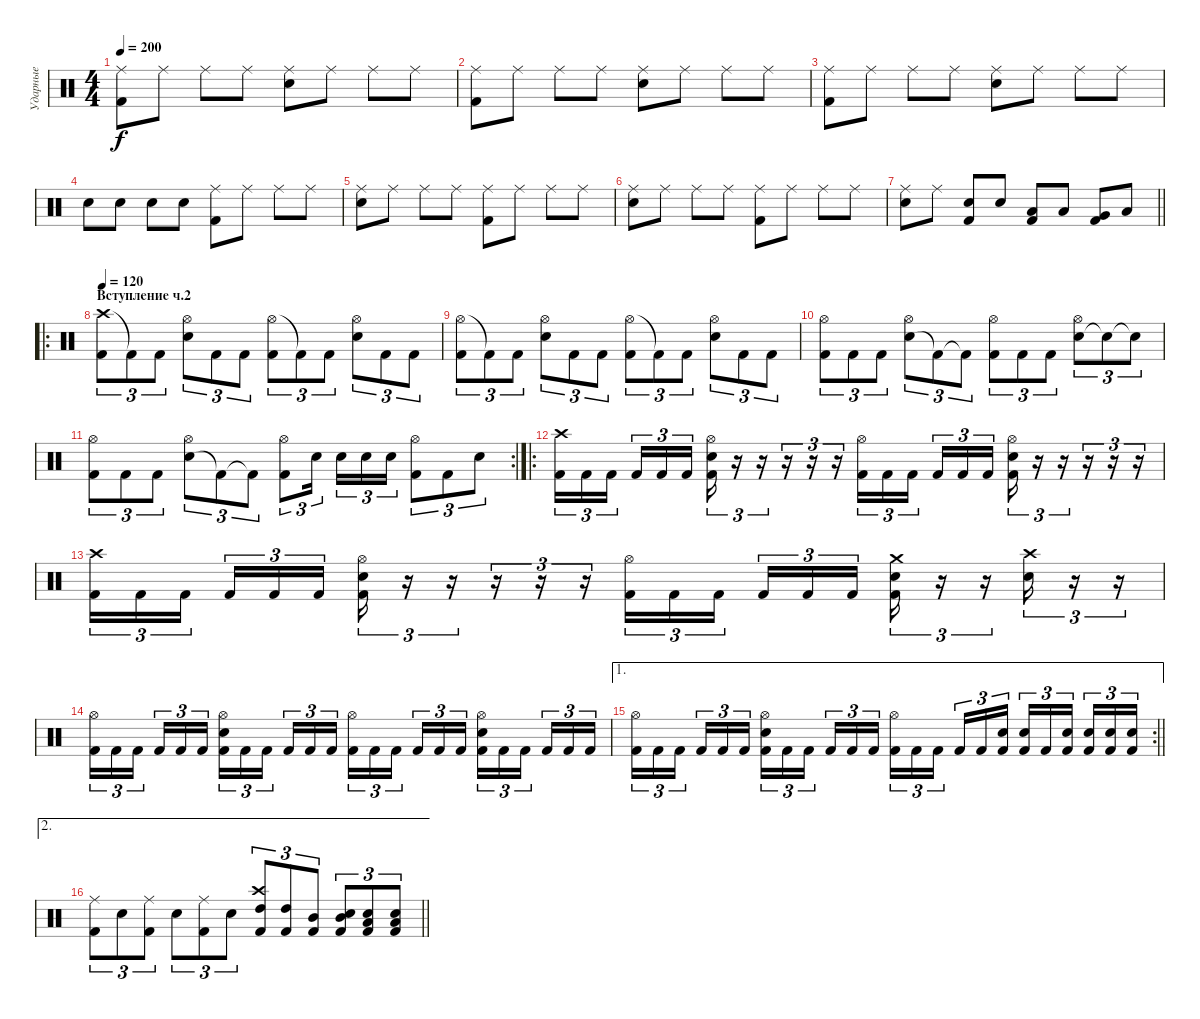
\track ("Ударные" "Ударные") {instrument percussion}
\staff {score}
\articulation defaults
\ts (4 4)
\tempo 200
\clef neutral
\ks c
("Kick (hit) 2" "Ride (middle)").8{dy f} "Ride (middle)".8 "Ride (middle)".8 "Ride (middle)".8 ("Snare (hit) 2" "Ride (middle)").8 "Ride (middle)".8 "Ride (middle)".8 "Ride (middle)".8 |
("Kick (hit) 2" "Ride (middle)").8 "Ride (middle)".8 "Ride (middle)".8 "Ride (middle)".8 ("Snare (hit) 2" "Ride (middle)").8 "Ride (middle)".8 "Ride (middle)".8 "Ride (middle)".8 |
("Kick (hit) 2" "Ride (middle)").8 "Ride (middle)".8 "Ride (middle)".8 "Ride (middle)".8 ("Snare (hit) 2" "Ride (middle)").8 "Ride (middle)".8 "Ride (middle)".8 "Ride (middle)".8 |
"Snare (hit) 2".8 "Snare (hit) 2".8 "Snare (hit) 2".8 "Snare (hit) 2".8 ("Kick (hit) 2" "Ride (middle)").8 "Ride (middle)".8 "Ride (middle)".8 "Ride (middle)".8 |
("Snare (hit) 2" "Ride (middle)").8 "Ride (middle)".8 "Ride (middle)".8 "Ride (middle)".8 ("Kick (hit) 2" "Ride (middle)").8 "Ride (middle)".8 "Ride (middle)".8 "Ride (middle)".8 |
("Snare (hit) 2" "Ride (middle)").8 "Ride (middle)".8 "Ride (middle)".8 "Ride (middle)".8 ("Kick (hit) 2" "Ride (middle)").8 "Ride (middle)".8 "Ride (middle)".8 "Ride (middle)".8 |
\barLineRight lightlight
("Snare (hit) 2" "Ride (middle)").8 "Ride (middle)".8 ("Snare (hit) 2" "Kick (hit) 2").8 "Snare (hit) 2".8 ("Low Tom (hit)" "Kick (hit) 2").8 "Low Tom (hit)".8 ("Very Low Tom (hit)" "Kick (hit) 2").8 "Low Floor Tom (hit)".8 |
\ro
\section ("" "Вступление ч.2")
\tempo 120
("Crash high (hit)" "Kick (hit) 2").8{tu (3 2)} "Kick (hit) 2"{t}.8{tu (3 2)} "Kick (hit) 2".8{tu (3 2)} ("Hi-Hat (open)" "Snare (hit) 2").8{tu (3 2)} "Kick (hit) 2".8{tu (3 2)} "Kick (hit) 2".8{tu (3 2)} ("Hi-Hat (open)" "Kick (hit) 2").8{tu (3 2)} "Kick (hit) 2"{t}.8{tu (3 2)} "Kick (hit) 2".8{tu (3 2)} ("Hi-Hat (open)" "Snare (hit) 2").8{tu (3 2)} "Kick (hit) 2".8{tu (3 2)} "Kick (hit) 2".8{tu (3 2)} |
("Hi-Hat (open)" "Kick (hit) 2").8{tu (3 2)} "Kick (hit) 2"{t}.8{tu (3 2)} "Kick (hit) 2".8{tu (3 2)} ("Hi-Hat (open)" "Snare (hit) 2").8{tu (3 2)} "Kick (hit) 2".8{tu (3 2)} "Kick (hit) 2".8{tu (3 2)} ("Hi-Hat (open)" "Kick (hit) 2").8{tu (3 2)} "Kick (hit) 2"{t}.8{tu (3 2)} "Kick (hit) 2".8{tu (3 2)} ("Hi-Hat (open)" "Snare (hit) 2").8{tu (3 2)} "Kick (hit) 2".8{tu (3 2)} "Kick (hit) 2".8{tu (3 2)} |
("Hi-Hat (open)" "Kick (hit) 2").8{tu (3 2)} "Kick (hit) 2".8{tu (3 2)} "Kick (hit) 2".8{tu (3 2)} ("Snare (hit) 2" "Hi-Hat (open)").8{tu (3 2)} "Kick (hit) 2"{t}.8{tu (3 2)} "Kick (hit) 2"{t}.8{tu (3 2)} ("Hi-Hat (open)" "Kick (hit) 2").8{tu (3 2)} "Kick (hit) 2".8{tu (3 2)} "Kick (hit) 2".8{tu (3 2)} ("Snare (hit) 2" "Hi-Hat (open)").8{tu (3 2)} "Snare (hit)"{t}.8{tu (3 2)} "Snare (hit)"{t}.8{tu (3 2)} |
\rc 2
("Hi-Hat (open)" "Kick (hit) 2").8{tu (3 2)} "Kick (hit) 2".8{tu (3 2)} "Kick (hit) 2".8{tu (3 2)} ("Snare (hit) 2" "Hi-Hat (open)").8{tu (3 2)} "Kick (hit) 2"{t}.8{tu (3 2)} "Kick (hit) 2"{t}.8{tu (3 2)} ("Hi-Hat (open)" "Kick (hit) 2").8{tu (3 2)} "Snare (hit) 2".16{tu (3 2) beam splitsecondary} "Snare (hit) 2".16{tu (3 2)} "Snare (hit) 2".16{tu (3 2)} "Snare (hit) 2".16{tu (3 2)} ("Hi-Hat (open)" "Kick (hit) 2").8{tu (3 2)} "Kick (hit) 2".8{tu (3 2)} "Snare (hit) 2".8{tu (3 2)} |
\ro
("Crash high (hit)" "Kick (hit) 2").16{tu (3 2)} "Kick (hit) 2".16{tu (3 2)} "Kick (hit) 2".16{tu (3 2) beam splitsecondary} "Kick (hit) 2".16{tu (3 2)} "Kick (hit) 2".16{tu (3 2)} "Kick (hit) 2".16{tu (3 2)} ("Snare (hit) 2" "Hi-Hat (open)" "Kick (hit) 2").16{tu (3 2)} r.16{tu (3 2)} r.16{tu (3 2)} r.16{tu (3 2)} r.16{tu (3 2)} r.16{tu (3 2)} ("Hi-Hat (open)" "Kick (hit) 2").16{tu (3 2)} "Kick (hit) 2".16{tu (3 2)} "Kick (hit) 2".16{tu (3 2) beam splitsecondary} "Kick (hit) 2".16{tu (3 2)} "Kick (hit) 2".16{tu (3 2)} "Kick (hit) 2".16{tu (3 2)} ("Snare (hit) 2" "Hi-Hat (open)" "Kick (hit) 2").16{tu (3 2)} r.16{tu (3 2)} r.16{tu (3 2)} r.16{tu (3 2)} r.16{tu (3 2)} r.16{tu (3 2)} |
("Crash high (hit)" "Kick (hit) 2").16{tu (3 2)} "Kick (hit) 2".16{tu (3 2)} "Kick (hit) 2".16{tu (3 2) beam splitsecondary} "Kick (hit) 2".16{tu (3 2)} "Kick (hit) 2".16{tu (3 2)} "Kick (hit) 2".16{tu (3 2)} ("Snare (hit) 2" "Hi-Hat (open)" "Kick (hit) 2").16{tu (3 2)} r.16{tu (3 2)} r.16{tu (3 2)} r.16{tu (3 2)} r.16{tu (3 2)} r.16{tu (3 2)} ("Hi-Hat (open)" "Kick (hit) 2").16{tu (3 2)} "Kick (hit) 2".16{tu (3 2)} "Kick (hit) 2".16{tu (3 2) beam splitsecondary} "Kick (hit) 2".16{tu (3 2)} "Kick (hit) 2".16{tu (3 2)} "Kick (hit) 2".16{tu (3 2)} ("Snare (hit) 2" "Crash medium (hit)" "Kick (hit) 2").16{tu (3 2)} r.16{tu (3 2)} r.16{tu (3 2)} ("Crash high (hit)" "Snare (hit) 2").16{tu (3 2)} r.16{tu (3 2)} r.16{tu (3 2)} |
("Hi-Hat (open)" "Kick (hit) 2").16{tu (3 2)} "Kick (hit) 2".16{tu (3 2)} "Kick (hit) 2".16{tu (3 2) beam splitsecondary} "Kick (hit) 2".16{tu (3 2)} "Kick (hit) 2".16{tu (3 2)} "Kick (hit) 2".16{tu (3 2)} ("Snare (hit) 2" "Hi-Hat (open)" "Kick (hit) 2").16{tu (3 2)} "Kick (hit) 2".16{tu (3 2)} "Kick (hit) 2".16{tu (3 2) beam splitsecondary} "Kick (hit) 2".16{tu (3 2)} "Kick (hit) 2".16{tu (3 2)} "Kick (hit) 2".16{tu (3 2)} ("Hi-Hat (open)" "Kick (hit) 2").16{tu (3 2)} "Kick (hit) 2".16{tu (3 2)} "Kick (hit) 2".16{tu (3 2) beam splitsecondary} "Kick (hit) 2".16{tu (3 2)} "Kick (hit) 2".16{tu (3 2)} "Kick (hit) 2".16{tu (3 2)} ("Snare (hit) 2" "Hi-Hat (open)" "Kick (hit) 2").16{tu (3 2)} "Kick (hit) 2".16{tu (3 2)} "Kick (hit) 2".16{tu (3 2) beam splitsecondary} "Kick (hit) 2".16{tu (3 2)} "Kick (hit) 2".16{tu (3 2)} "Kick (hit) 2".16{tu (3 2)} |
\ae 1
\rc 2
\barLineRight lightlight
("Hi-Hat (open)" "Kick (hit) 2").16{tu (3 2)} "Kick (hit) 2".16{tu (3 2)} "Kick (hit) 2".16{tu (3 2) beam splitsecondary} "Kick (hit) 2".16{tu (3 2)} "Kick (hit) 2".16{tu (3 2)} "Kick (hit) 2".16{tu (3 2)} ("Snare (hit) 2" "Hi-Hat (open)" "Kick (hit) 2").16{tu (3 2)} "Kick (hit) 2".16{tu (3 2)} "Kick (hit) 2".16{tu (3 2) beam splitsecondary} "Kick (hit) 2".16{tu (3 2)} "Kick (hit) 2".16{tu (3 2)} "Kick (hit) 2".16{tu (3 2)} ("Hi-Hat (open)" "Kick (hit) 2").16{tu (3 2)} "Kick (hit) 2".16{tu (3 2)} "Kick (hit) 2".16{tu (3 2) beam splitsecondary} "Kick (hit) 2".16{tu (3 2)} "Kick (hit) 2".16{tu (3 2)} ("Snare (hit) 2" "Kick (hit) 2").16{tu (3 2)} ("Snare (hit) 2" "Kick (hit) 2").16{tu (3 2)} "Kick (hit) 2".16{tu (3 2)} ("Snare (hit) 2" "Kick (hit) 2").16{tu (3 2) beam splitsecondary} ("Snare (hit) 2" "Kick (hit) 2").16{tu (3 2)} ("Snare (hit) 2" "Kick (hit) 2").16{tu (3 2)} ("Snare (hit) 2" "Kick (hit) 2").16{tu (3 2)} |
\ae 2
\barLineRight lightlight
("Ride (middle)" "Kick (hit) 2").8{tu (3 2)} "Snare (hit) 2".8{tu (3 2)} ("Ride (middle)" "Kick (hit) 2").8{tu (3 2)} "Snare (hit) 2".8{tu (3 2)} ("Ride (middle)" "Kick (hit) 2").8{tu (3 2)} "Snare (hit) 2".8{tu (3 2)} ("Crash high (hit)" "High Tom (hit)" "Kick (hit) 2").8{tu (3 2)} ("High Tom (hit)" "Kick (hit) 2").8{tu (3 2)} ("Mid Tom (hit)" "Kick (hit) 2").8{tu (3 2)} ("Mid Tom (hit)" "Snare (hit) 2" "Kick (hit) 2").8{tu (3 2)} ("Low Tom (hit)" "Snare (hit) 2" "Kick (hit) 2").8{tu (3 2)} ("Low Tom (hit)" "Snare (hit) 2" "Kick (hit) 2").8{tu (3 2)}
